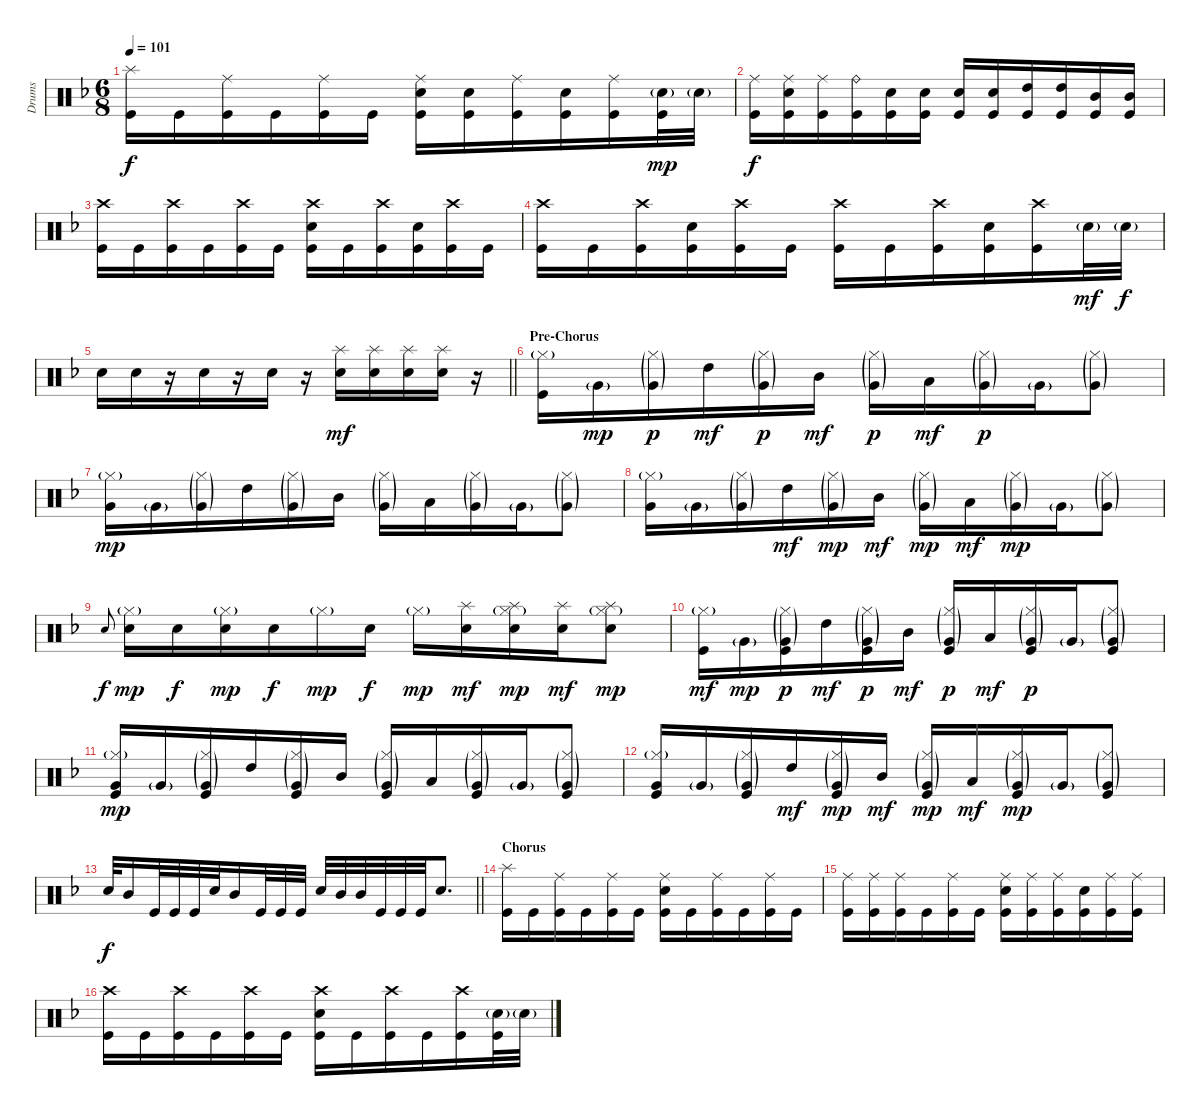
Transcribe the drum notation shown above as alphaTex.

\track ("Drums" "Drums") {instrument percussion bank 10}
\staff {score}
\articulation defaults
\ts (6 8)
\tempo 101
\clef neutral
\ks dminor
("Splash (hit)" "Kick (hit)").16{dy f} "Kick (hit)".16 ("Ride (middle)" "Kick (hit)").16 "Kick (hit)".16 ("Ride (middle)" "Kick (hit)").16 "Kick (hit)".16 ("Ride (middle)" "Electric Snare (hit)" "Kick (hit)").16 ("Electric Snare (hit)" "Kick (hit)").16 ("Ride (middle)" "Kick (hit)").16 ("Electric Snare (hit)" "Kick (hit)").16 ("Ride (middle)" "Kick (hit)").16 ("Electric Snare (hit)"{g} "Kick (hit)").32{dy mp} "Electric Snare (hit)"{g}.32 |
("Ride (middle)" "Kick (hit)").16{dy f} ("Ride (middle)" "Electric Snare (hit)" "Kick (hit)").16 ("Ride (middle)" "Kick (hit)").16 ("Ride (bell)" "Kick (hit)").16 ("Electric Snare (hit)" "Kick (hit)").16 ("Electric Snare (hit)" "Kick (hit)").16 ("Electric Snare (hit)" "Kick (hit)").16 ("Electric Snare (hit)" "Kick (hit)").16 ("High Tom (hit)" "Kick (hit)").16 ("High Tom (hit)" "Kick (hit)").16 ("Mid Tom (hit)" "Kick (hit)").16 ("Mid Tom (hit)" "Kick (hit)").16 |
("Crash high (hit)" "Kick (hit)").16 "Kick (hit)".16 ("Crash high (hit)" "Kick (hit)").16 "Kick (hit)".16 ("Crash high (hit)" "Kick (hit)").16 "Kick (hit)".16 ("Crash high (hit)" "Electric Snare (hit)" "Kick (hit)").16 "Kick (hit)".16 ("Crash high (hit)" "Kick (hit)").16 ("Electric Snare (hit)" "Kick (hit)").16 ("Crash high (hit)" "Kick (hit)").16 "Kick (hit)".16 |
("Crash high (hit)" "Kick (hit)").16 "Kick (hit)".16 ("Crash high (hit)" "Kick (hit)").16 ("Electric Snare (hit)" "Kick (hit)").16 ("Crash high (hit)" "Kick (hit)").16 "Kick (hit)".16 ("Crash high (hit)" "Kick (hit)").16 "Kick (hit)".16 ("Crash high (hit)" "Kick (hit)").16 ("Electric Snare (hit)" "Kick (hit)").16 ("Crash high (hit)" "Kick (hit)").16 "Electric Snare (hit)"{g}.32{dy mf} "Electric Snare (hit)"{g}.32{dy f} |
\barLineRight lightlight "Electric Snare (hit)".16 "Electric Snare (hit)".16
r.16 "Electric Snare (hit)".16 r.16 "Electric Snare (hit)".16 r.16 ("Splash (hit)" "Electric Snare (hit)").16{dy mf} ("Splash (hit)" "Electric Snare (hit)").16 ("Splash (hit)" "Electric Snare (hit)").16 ("Splash (hit)" "Electric Snare (hit)").16 r.16 |
\section ("" "Pre-Chorus")
("Hi-Hat (closed)"{g} "Kick (hit)").16 "Very Low Tom (hit)"{g}.16{dy mp} ("Hi-Hat (closed)"{g} "Very Low Tom (hit)"{g}).16{dy p} "High Tom (hit)".16{dy mf} ("Hi-Hat (closed)"{g} "Very Low Tom (hit)"{g}).16{dy p} "Mid Tom (hit)".16{dy mf} ("Hi-Hat (closed)"{g} "Very Low Tom (hit)"{g}).16{dy p} "Low Tom (hit)".16{dy mf} ("Hi-Hat (closed)"{g} "Very Low Tom (hit)"{g}).16{dy p} "Very Low Tom (hit)"{g}.16 ("Hi-Hat (closed)"{g} "Very Low Tom (hit)"{g}).8 |
("Hi-Hat (closed)"{g} "Very Low Tom (hit)").16{dy mp} "Very Low Tom (hit)"{g}.16 ("Hi-Hat (closed)"{g} "Very Low Tom (hit)"{g}).16 "High Tom (hit)".16 ("Hi-Hat (closed)"{g} "Very Low Tom (hit)"{g}).16 "Mid Tom (hit)".16 ("Hi-Hat (closed)"{g} "Very Low Tom (hit)"{g}).16 "Low Tom (hit)".16 ("Hi-Hat (closed)"{g} "Very Low Tom (hit)"{g}).16 "Very Low Tom (hit)"{g}.16 ("Hi-Hat (closed)"{g} "Very Low Tom (hit)"{g}).8 |
("Hi-Hat (closed)"{g} "Very Low Tom (hit)").16 "Very Low Tom (hit)"{g}.16 ("Hi-Hat (closed)"{g} "Very Low Tom (hit)"{g}).16 "High Tom (hit)".16{dy mf} ("Hi-Hat (closed)"{g} "Very Low Tom (hit)"{g}).16{dy mp} "Mid Tom (hit)".16{dy mf} ("Hi-Hat (closed)"{g} "Very Low Tom (hit)"{g}).16{dy mp} "Low Tom (hit)".16{dy mf} ("Hi-Hat (closed)"{g} "Very Low Tom (hit)"{g}).16{dy mp} "Very Low Tom (hit)"{g}.16 ("Hi-Hat (closed)"{g} "Very Low Tom (hit)"{g}).8 |
"Electric Snare (hit)"{h}.8{gr onbeat dy f} ("Hi-Hat (closed)"{g} "Electric Snare (hit)").16{dy mp} "Electric Snare (hit)".16{dy f} ("Hi-Hat (closed)"{g} "Electric Snare (hit)").16{dy mp} "Electric Snare (hit)".16{dy f} "Hi-Hat (closed)"{g}.16{dy mp} "Electric Snare (hit)".16{dy f} "Hi-Hat (closed)"{g}.16{dy mp} ("Splash (hit)" "Electric Snare (hit)").16{dy mf} ("Splash (hit)" "Hi-Hat (closed)"{g} "Electric Snare (hit)").16{dy mp} ("Splash (hit)" "Electric Snare (hit)").16{dy mf} ("Splash (hit)" "Hi-Hat (closed)"{g} "Electric Snare (hit)").8{dy mp} |
("Hi-Hat (closed)"{g} "Kick (hit)").16{dy mf} "Very Low Tom (hit)"{g}.16{dy mp} ("Hi-Hat (closed)"{g} "Very Low Tom (hit)"{g} "Kick (hit)").16{dy p} "High Tom (hit)".16{dy mf} ("Hi-Hat (closed)"{g} "Very Low Tom (hit)"{g} "Kick (hit)").16{dy p} "Mid Tom (hit)".16{dy mf} ("Hi-Hat (closed)"{g} "Very Low Tom (hit)"{g} "Kick (hit)").16{dy p} "Low Tom (hit)".16{dy mf} ("Hi-Hat (closed)"{g} "Very Low Tom (hit)"{g} "Kick (hit)").16{dy p} "Very Low Tom (hit)"{g}.16 ("Hi-Hat (closed)"{g} "Very Low Tom (hit)"{g} "Kick (hit)").8 |
("Hi-Hat (closed)"{g} "Very Low Tom (hit)" "Kick (hit)").16{dy mp} "Very Low Tom (hit)"{g}.16 ("Hi-Hat (closed)"{g} "Very Low Tom (hit)"{g} "Kick (hit)").16 "High Tom (hit)".16 ("Hi-Hat (closed)"{g} "Very Low Tom (hit)"{g} "Kick (hit)").16 "Mid Tom (hit)".16 ("Hi-Hat (closed)"{g} "Very Low Tom (hit)"{g} "Kick (hit)").16 "Low Tom (hit)".16 ("Hi-Hat (closed)"{g} "Very Low Tom (hit)"{g} "Kick (hit)").16 "Very Low Tom (hit)"{g}.16 ("Hi-Hat (closed)"{g} "Very Low Tom (hit)"{g} "Kick (hit)").8 |
("Hi-Hat (closed)"{g} "Very Low Tom (hit)" "Kick (hit)").16 "Very Low Tom (hit)"{g}.16 ("Hi-Hat (closed)"{g} "Very Low Tom (hit)"{g} "Kick (hit)").16 "High Tom (hit)".16{dy mf} ("Hi-Hat (closed)"{g} "Very Low Tom (hit)"{g} "Kick (hit)").16{dy mp} "Mid Tom (hit)".16{dy mf} ("Hi-Hat (closed)"{g} "Very Low Tom (hit)"{g} "Kick (hit)").16{dy mp} "Low Tom (hit)".16{dy mf} ("Hi-Hat (closed)"{g} "Very Low Tom (hit)"{g} "Kick (hit)").16{dy mp} "Very Low Tom (hit)"{g}.16 ("Hi-Hat (closed)"{g} "Very Low Tom (hit)"{g} "Kick (hit)").8 |
\barLineRight lightlight "Electric Snare (hit)".32{dy f} "Mid Tom (hit)".16 "Kick (hit)".32 "Kick (hit)".32 "Kick (hit)".32 "Electric Snare (hit)".32 "Mid Tom (hit)".16 "Kick (hit)".32 "Kick (hit)".32 "Kick (hit)".32 "Electric Snare (hit)".32 "Mid Tom (hit)".32 "Mid Tom (hit)".32 "Kick (hit)".32 "Kick (hit)".32 "Kick (hit)".32 "Electric Snare (hit)".8{d}
|
\section ("" "Chorus")
("Splash (hit)" "Kick (hit)").16 "Kick (hit)".16 ("Ride (middle)" "Kick (hit)").16 "Kick (hit)".16 ("Ride (middle)" "Kick (hit)").16 "Kick (hit)".16 ("Ride (middle)" "Electric Snare (hit)" "Kick (hit)").16 "Kick (hit)".16 ("Ride (middle)" "Kick (hit)").16 "Kick (hit)".16 ("Ride (middle)" "Kick (hit)").16 "Kick (hit)".16 |
("Ride (middle)" "Kick (hit)").16 ("Ride (middle)" "Kick (hit)").16 ("Ride (middle)" "Kick (hit)").16 "Kick (hit)".16 ("Ride (middle)" "Kick (hit)").16 "Kick (hit)".16 ("Ride (middle)" "Electric Snare (hit)" "Kick (hit)").16 ("Ride (middle)" "Kick (hit)").16 ("Ride (middle)" "Kick (hit)").16 ("Electric Snare (hit)" "Kick (hit)").16 ("Ride (middle)" "Kick (hit)").16 ("Ride (middle)" "Kick (hit)").16 |
("Crash high (hit)" "Kick (hit)").16 "Kick (hit)".16 ("Crash high (hit)" "Kick (hit)").16 "Kick (hit)".16 ("Crash high (hit)" "Kick (hit)").16 "Kick (hit)".16 ("Crash high (hit)" "Electric Snare (hit)" "Kick (hit)").16 "Kick (hit)".16 ("Crash high (hit)" "Kick (hit)").16 "Kick (hit)".16 ("Crash high (hit)" "Kick (hit)").16 ("Electric Snare (hit)"{g} "Kick (hit)").32 "Electric Snare (hit)"{g}.32
